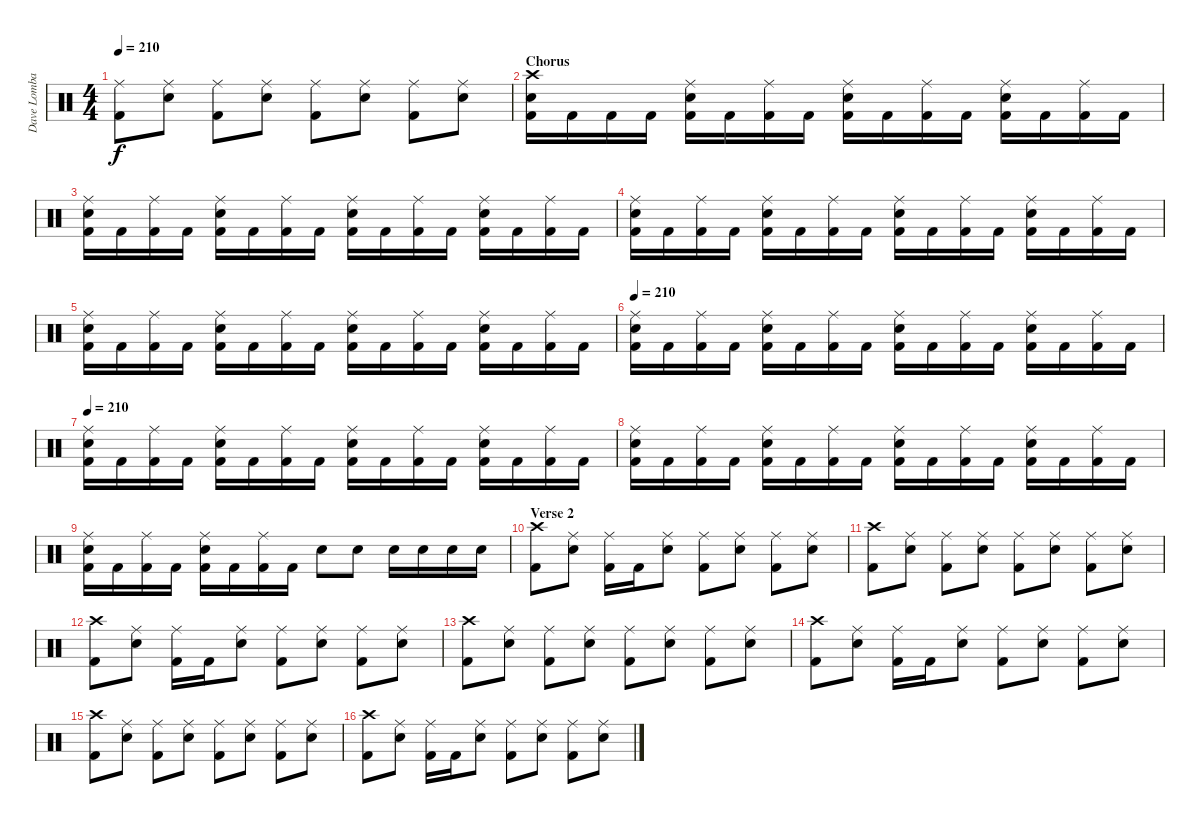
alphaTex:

\track ("Dave Lombardo" "Dave Lomba") {instrument percussion}
\staff {score}
\articulation defaults
\ts (4 4)
\tempo 210
\clef neutral
\ks c
("Ride (middle)" "Kick (hit) 2").8{dy f} ("Ride (middle)" "Snare (hit) 2").8 ("Ride (middle)" "Kick (hit) 2").8 ("Ride (middle)" "Snare (hit) 2").8 ("Ride (middle)" "Kick (hit) 2").8 ("Ride (middle)" "Snare (hit) 2").8 ("Ride (middle)" "Kick (hit) 2").8 ("Ride (middle)" "Snare (hit) 2").8 |
\section ("" "Chorus")
("Crash high (hit)" "Snare (hit) 2" "Kick (hit) 2").16 "Kick (hit) 2".16 "Kick (hit) 2".16 "Kick (hit) 2".16 ("Ride (middle)" "Snare (hit) 2" "Kick (hit) 2").16 "Kick (hit) 2".16 ("Ride (middle)" "Kick (hit) 2").16 "Kick (hit) 2".16 ("Ride (middle)" "Snare (hit) 2" "Kick (hit) 2").16 "Kick (hit) 2".16 ("Ride (middle)" "Kick (hit) 2").16 "Kick (hit) 2".16 ("Ride (middle)" "Snare (hit) 2" "Kick (hit) 2").16 "Kick (hit) 2".16 ("Ride (middle)" "Kick (hit) 2").16 "Kick (hit) 2".16 |
("Ride (middle)" "Snare (hit) 2" "Kick (hit) 2").16 "Kick (hit) 2".16 ("Ride (middle)" "Kick (hit) 2").16 "Kick (hit) 2".16 ("Ride (middle)" "Snare (hit) 2" "Kick (hit) 2").16 "Kick (hit) 2".16 ("Ride (middle)" "Kick (hit) 2").16 "Kick (hit) 2".16 ("Ride (middle)" "Snare (hit) 2" "Kick (hit) 2").16 "Kick (hit) 2".16 ("Ride (middle)" "Kick (hit) 2").16 "Kick (hit) 2".16 ("Ride (middle)" "Snare (hit) 2" "Kick (hit) 2").16 "Kick (hit) 2".16 ("Ride (middle)" "Kick (hit) 2").16 "Kick (hit) 2".16 |
("Ride (middle)" "Snare (hit) 2" "Kick (hit) 2").16 "Kick (hit) 2".16 ("Ride (middle)" "Kick (hit) 2").16 "Kick (hit) 2".16 ("Ride (middle)" "Snare (hit) 2" "Kick (hit) 2").16 "Kick (hit) 2".16 ("Ride (middle)" "Kick (hit) 2").16 "Kick (hit) 2".16 ("Ride (middle)" "Snare (hit) 2" "Kick (hit) 2").16 "Kick (hit) 2".16 ("Ride (middle)" "Kick (hit) 2").16 "Kick (hit) 2".16 ("Ride (middle)" "Snare (hit) 2" "Kick (hit) 2").16 "Kick (hit) 2".16 ("Ride (middle)" "Kick (hit) 2").16 "Kick (hit) 2".16 |
("Ride (middle)" "Snare (hit) 2" "Kick (hit) 2").16 "Kick (hit) 2".16 ("Ride (middle)" "Kick (hit) 2").16 "Kick (hit) 2".16 ("Ride (middle)" "Snare (hit) 2" "Kick (hit) 2").16 "Kick (hit) 2".16 ("Ride (middle)" "Kick (hit) 2").16 "Kick (hit) 2".16 ("Ride (middle)" "Snare (hit) 2" "Kick (hit) 2").16 "Kick (hit) 2".16 ("Ride (middle)" "Kick (hit) 2").16 "Kick (hit) 2".16 ("Ride (middle)" "Snare (hit) 2" "Kick (hit) 2").16 "Kick (hit) 2".16 ("Ride (middle)" "Kick (hit) 2").16 "Kick (hit) 2".16 |
\tempo 210
("Ride (middle)" "Snare (hit) 2" "Kick (hit) 2").16 "Kick (hit) 2".16 ("Ride (middle)" "Kick (hit) 2").16 "Kick (hit) 2".16 ("Ride (middle)" "Snare (hit) 2" "Kick (hit) 2").16 "Kick (hit) 2".16 ("Ride (middle)" "Kick (hit) 2").16 "Kick (hit) 2".16 ("Ride (middle)" "Snare (hit) 2" "Kick (hit) 2").16 "Kick (hit) 2".16 ("Ride (middle)" "Kick (hit) 2").16 "Kick (hit) 2".16 ("Ride (middle)" "Snare (hit) 2" "Kick (hit) 2").16 "Kick (hit) 2".16 ("Ride (middle)" "Kick (hit) 2").16 "Kick (hit) 2".16 |
\tempo 210
("Ride (middle)" "Snare (hit) 2" "Kick (hit) 2").16 "Kick (hit) 2".16 ("Ride (middle)" "Kick (hit) 2").16 "Kick (hit) 2".16 ("Ride (middle)" "Snare (hit) 2" "Kick (hit) 2").16 "Kick (hit) 2".16 ("Ride (middle)" "Kick (hit) 2").16 "Kick (hit) 2".16 ("Ride (middle)" "Snare (hit) 2" "Kick (hit) 2").16 "Kick (hit) 2".16 ("Ride (middle)" "Kick (hit) 2").16 "Kick (hit) 2".16 ("Ride (middle)" "Snare (hit) 2" "Kick (hit) 2").16 "Kick (hit) 2".16 ("Ride (middle)" "Kick (hit) 2").16 "Kick (hit) 2".16 |
("Ride (middle)" "Snare (hit) 2" "Kick (hit) 2").16 "Kick (hit) 2".16 ("Ride (middle)" "Kick (hit) 2").16 "Kick (hit) 2".16 ("Ride (middle)" "Snare (hit) 2" "Kick (hit) 2").16 "Kick (hit) 2".16 ("Ride (middle)" "Kick (hit) 2").16 "Kick (hit) 2".16 ("Ride (middle)" "Snare (hit) 2" "Kick (hit) 2").16 "Kick (hit) 2".16 ("Ride (middle)" "Kick (hit) 2").16 "Kick (hit) 2".16 ("Ride (middle)" "Snare (hit) 2" "Kick (hit) 2").16 "Kick (hit) 2".16 ("Ride (middle)" "Kick (hit) 2").16 "Kick (hit) 2".16 |
("Ride (middle)" "Snare (hit) 2" "Kick (hit) 2").16 "Kick (hit) 2".16 ("Ride (middle)" "Kick (hit) 2").16 "Kick (hit) 2".16 ("Ride (middle)" "Snare (hit) 2" "Kick (hit) 2").16 "Kick (hit) 2".16 ("Ride (middle)" "Kick (hit) 2").16 "Kick (hit) 2".16 "Snare (hit) 2".8 "Snare (hit) 2".8 "Snare (hit) 2".16 "Snare (hit) 2".16 "Snare (hit) 2".16 "Snare (hit) 2".16 |
\section ("" "Verse 2")
("Crash high (hit)" "Kick (hit) 2").8 ("Ride (middle)" "Snare (hit) 2").8 ("Ride (middle)" "Kick (hit) 2").16 "Kick (hit) 2".16 ("Ride (middle)" "Snare (hit) 2").8 ("Ride (middle)" "Kick (hit) 2").8 ("Ride (middle)" "Snare (hit) 2").8 ("Ride (middle)" "Kick (hit) 2").8 ("Ride (middle)" "Snare (hit) 2").8 |
("Crash high (hit)" "Kick (hit) 2").8 ("Ride (middle)" "Snare (hit) 2").8 ("Ride (middle)" "Kick (hit) 2").8 ("Ride (middle)" "Snare (hit) 2").8 ("Ride (middle)" "Kick (hit) 2").8 ("Ride (middle)" "Snare (hit) 2").8 ("Ride (middle)" "Kick (hit) 2").8 ("Ride (middle)" "Snare (hit) 2").8 |
("Crash high (hit)" "Kick (hit) 2").8 ("Ride (middle)" "Snare (hit) 2").8 ("Ride (middle)" "Kick (hit) 2").16 "Kick (hit) 2".16 ("Ride (middle)" "Snare (hit) 2").8 ("Ride (middle)" "Kick (hit) 2").8 ("Ride (middle)" "Snare (hit) 2").8 ("Ride (middle)" "Kick (hit) 2").8 ("Ride (middle)" "Snare (hit) 2").8 |
("Crash high (hit)" "Kick (hit) 2").8 ("Ride (middle)" "Snare (hit) 2").8 ("Ride (middle)" "Kick (hit) 2").8 ("Ride (middle)" "Snare (hit) 2").8 ("Ride (middle)" "Kick (hit) 2").8 ("Ride (middle)" "Snare (hit) 2").8 ("Ride (middle)" "Kick (hit) 2").8 ("Ride (middle)" "Snare (hit) 2").8 |
("Crash high (hit)" "Kick (hit) 2").8 ("Ride (middle)" "Snare (hit) 2").8 ("Ride (middle)" "Kick (hit) 2").16 "Kick (hit) 2".16 ("Ride (middle)" "Snare (hit) 2").8 ("Ride (middle)" "Kick (hit) 2").8 ("Ride (middle)" "Snare (hit) 2").8 ("Ride (middle)" "Kick (hit) 2").8 ("Ride (middle)" "Snare (hit) 2").8 |
("Crash high (hit)" "Kick (hit) 2").8 ("Ride (middle)" "Snare (hit) 2").8 ("Ride (middle)" "Kick (hit) 2").8 ("Ride (middle)" "Snare (hit) 2").8 ("Ride (middle)" "Kick (hit) 2").8 ("Ride (middle)" "Snare (hit) 2").8 ("Ride (middle)" "Kick (hit) 2").8 ("Ride (middle)" "Snare (hit) 2").8 |
("Crash high (hit)" "Kick (hit) 2").8 ("Ride (middle)" "Snare (hit) 2").8 ("Ride (middle)" "Kick (hit) 2").16 "Kick (hit) 2".16 ("Ride (middle)" "Snare (hit) 2").8 ("Ride (middle)" "Kick (hit) 2").8 ("Ride (middle)" "Snare (hit) 2").8 ("Ride (middle)" "Kick (hit) 2").8 ("Ride (middle)" "Snare (hit) 2").8
